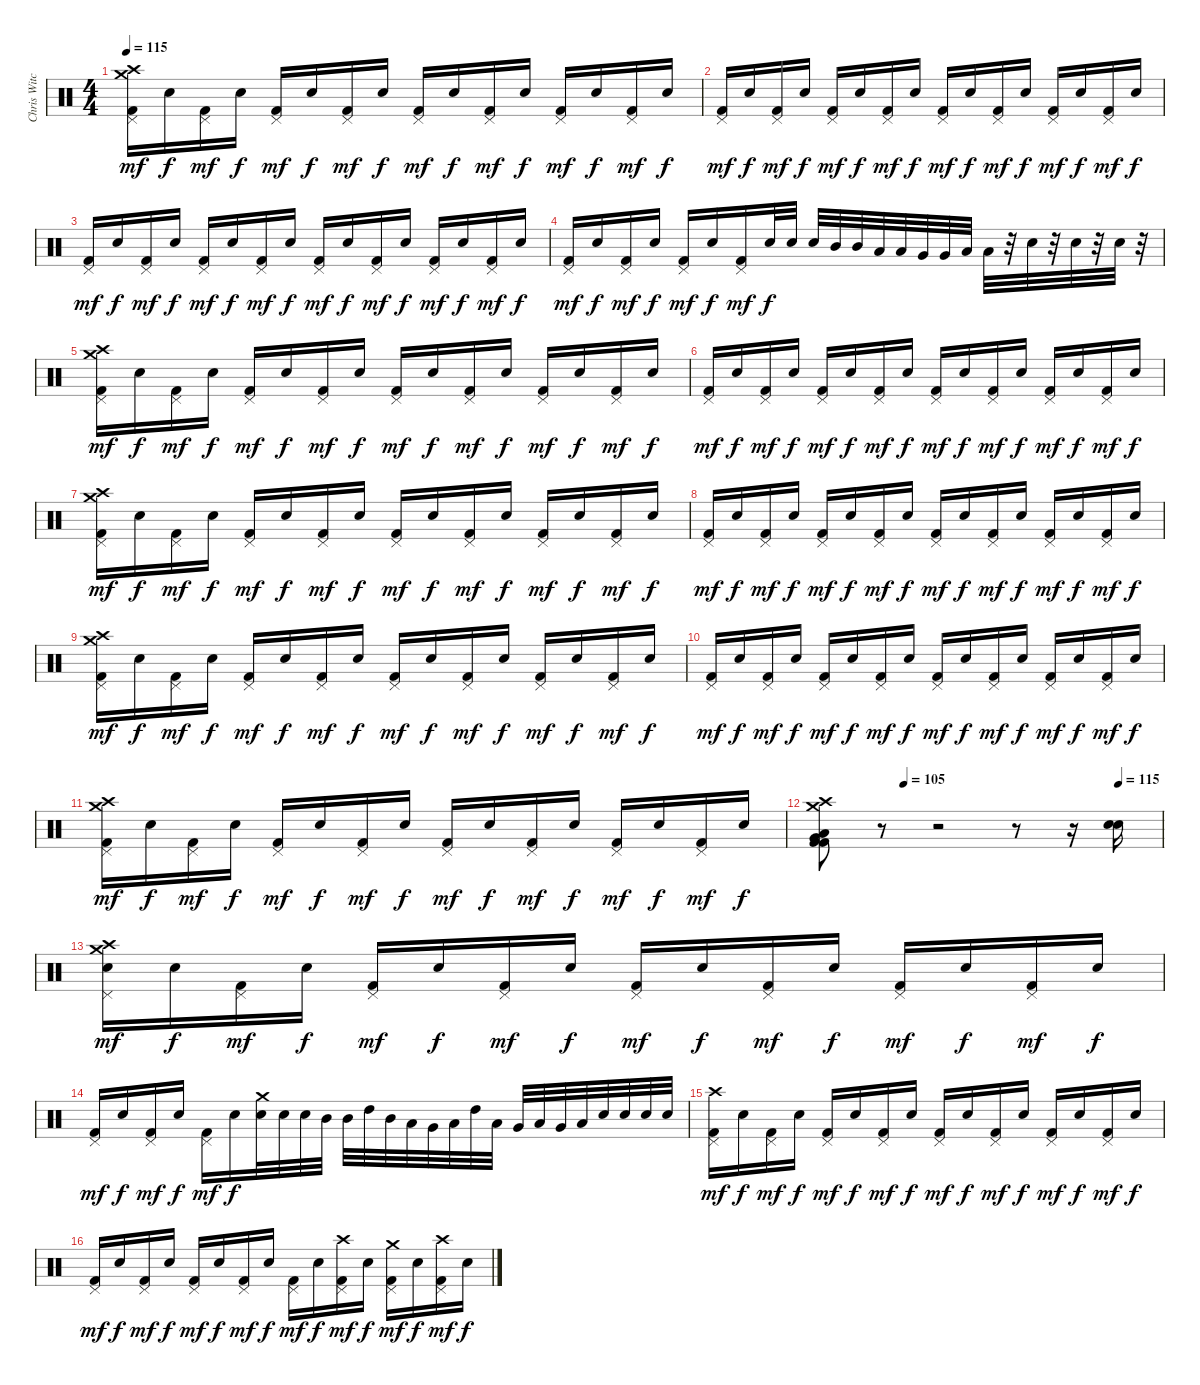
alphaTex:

\track ("Chris Witchhunter (Drums)" "Chris Witc") {instrument percussion}
\staff {score}
\articulation defaults
\ts (4 4)
\tempo 115
\clef neutral
\ks c
("Crash high (hit)" "Crash medium (hit)" "Pedal Hi-Hat (hit)" "Kick (hit) 2").16{dy mf} "Snare (hit) 2".16{dy f} ("Pedal Hi-Hat (hit)" "Kick (hit) 2").16{dy mf} "Snare (hit) 2".16{dy f} ("Pedal Hi-Hat (hit)" "Kick (hit) 2").16{dy mf} "Snare (hit) 2".16{dy f} ("Pedal Hi-Hat (hit)" "Kick (hit) 2").16{dy mf} "Snare (hit) 2".16{dy f} ("Pedal Hi-Hat (hit)" "Kick (hit) 2").16{dy mf} "Snare (hit) 2".16{dy f} ("Pedal Hi-Hat (hit)" "Kick (hit) 2").16{dy mf} "Snare (hit) 2".16{dy f} ("Pedal Hi-Hat (hit)" "Kick (hit) 2").16{dy mf} "Snare (hit) 2".16{dy f} ("Pedal Hi-Hat (hit)" "Kick (hit) 2").16{dy mf} "Snare (hit) 2".16{dy f} |
("Pedal Hi-Hat (hit)" "Kick (hit) 2").16{dy mf} "Snare (hit) 2".16{dy f} ("Pedal Hi-Hat (hit)" "Kick (hit) 2").16{dy mf} "Snare (hit) 2".16{dy f} ("Pedal Hi-Hat (hit)" "Kick (hit) 2").16{dy mf} "Snare (hit) 2".16{dy f} ("Pedal Hi-Hat (hit)" "Kick (hit) 2").16{dy mf} "Snare (hit) 2".16{dy f} ("Pedal Hi-Hat (hit)" "Kick (hit) 2").16{dy mf} "Snare (hit) 2".16{dy f} ("Pedal Hi-Hat (hit)" "Kick (hit) 2").16{dy mf} "Snare (hit) 2".16{dy f} ("Pedal Hi-Hat (hit)" "Kick (hit) 2").16{dy mf} "Snare (hit) 2".16{dy f} ("Pedal Hi-Hat (hit)" "Kick (hit) 2").16{dy mf} "Snare (hit) 2".16{dy f} |
("Pedal Hi-Hat (hit)" "Kick (hit) 2").16{dy mf} "Snare (hit) 2".16{dy f} ("Pedal Hi-Hat (hit)" "Kick (hit) 2").16{dy mf} "Snare (hit) 2".16{dy f} ("Pedal Hi-Hat (hit)" "Kick (hit) 2").16{dy mf} "Snare (hit) 2".16{dy f} ("Pedal Hi-Hat (hit)" "Kick (hit) 2").16{dy mf} "Snare (hit) 2".16{dy f} ("Pedal Hi-Hat (hit)" "Kick (hit) 2").16{dy mf} "Snare (hit) 2".16{dy f} ("Pedal Hi-Hat (hit)" "Kick (hit) 2").16{dy mf} "Snare (hit) 2".16{dy f} ("Pedal Hi-Hat (hit)" "Kick (hit) 2").16{dy mf} "Snare (hit) 2".16{dy f} ("Pedal Hi-Hat (hit)" "Kick (hit) 2").16{dy mf} "Snare (hit) 2".16{dy f} |
("Pedal Hi-Hat (hit)" "Kick (hit) 2").16{dy mf} "Snare (hit) 2".16{dy f} ("Pedal Hi-Hat (hit)" "Kick (hit) 2").16{dy mf} "Snare (hit) 2".16{dy f} ("Pedal Hi-Hat (hit)" "Kick (hit) 2").16{dy mf} "Snare (hit) 2".16{dy f} ("Pedal Hi-Hat (hit)" "Kick (hit) 2").16{dy mf} "Snare (hit) 2".32{dy f} "Snare (hit) 2".32 "Snare (hit) 2".32 "Mid Tom (hit)".32 "Mid Tom (hit)".32 "Low Tom (hit)".32 "Low Tom (hit)".32 "Very Low Tom (hit)".32 "Very Low Tom (hit)".32 "Low Floor Tom (hit)".32 "Low Floor Tom (hit)".32 r.32 "Snare (hit) 2".32 r.32 "Snare (hit) 2".32 r.32 "Snare (hit) 2".32 r.32 |
("Crash high (hit)" "Crash medium (hit)" "Pedal Hi-Hat (hit)" "Kick (hit) 2").16{dy mf} "Snare (hit) 2".16{dy f} ("Pedal Hi-Hat (hit)" "Kick (hit) 2").16{dy mf} "Snare (hit) 2".16{dy f} ("Pedal Hi-Hat (hit)" "Kick (hit) 2").16{dy mf} "Snare (hit) 2".16{dy f} ("Pedal Hi-Hat (hit)" "Kick (hit) 2").16{dy mf} "Snare (hit) 2".16{dy f} ("Pedal Hi-Hat (hit)" "Kick (hit) 2").16{dy mf} "Snare (hit) 2".16{dy f} ("Pedal Hi-Hat (hit)" "Kick (hit) 2").16{dy mf} "Snare (hit) 2".16{dy f} ("Pedal Hi-Hat (hit)" "Kick (hit) 2").16{dy mf} "Snare (hit) 2".16{dy f} ("Pedal Hi-Hat (hit)" "Kick (hit) 2").16{dy mf} "Snare (hit) 2".16{dy f} |
("Pedal Hi-Hat (hit)" "Kick (hit) 2").16{dy mf} "Snare (hit) 2".16{dy f} ("Pedal Hi-Hat (hit)" "Kick (hit) 2").16{dy mf} "Snare (hit) 2".16{dy f} ("Pedal Hi-Hat (hit)" "Kick (hit) 2").16{dy mf} "Snare (hit) 2".16{dy f} ("Pedal Hi-Hat (hit)" "Kick (hit) 2").16{dy mf} "Snare (hit) 2".16{dy f} ("Pedal Hi-Hat (hit)" "Kick (hit) 2").16{dy mf} "Snare (hit) 2".16{dy f} ("Pedal Hi-Hat (hit)" "Kick (hit) 2").16{dy mf} "Snare (hit) 2".16{dy f} ("Pedal Hi-Hat (hit)" "Kick (hit) 2").16{dy mf} "Snare (hit) 2".16{dy f} ("Pedal Hi-Hat (hit)" "Kick (hit) 2").16{dy mf} "Snare (hit) 2".16{dy f} |
("Crash high (hit)" "Crash medium (hit)" "Pedal Hi-Hat (hit)" "Kick (hit) 2").16{dy mf} "Snare (hit) 2".16{dy f} ("Pedal Hi-Hat (hit)" "Kick (hit) 2").16{dy mf} "Snare (hit) 2".16{dy f} ("Pedal Hi-Hat (hit)" "Kick (hit) 2").16{dy mf} "Snare (hit) 2".16{dy f} ("Pedal Hi-Hat (hit)" "Kick (hit) 2").16{dy mf} "Snare (hit) 2".16{dy f} ("Pedal Hi-Hat (hit)" "Kick (hit) 2").16{dy mf} "Snare (hit) 2".16{dy f} ("Pedal Hi-Hat (hit)" "Kick (hit) 2").16{dy mf} "Snare (hit) 2".16{dy f} ("Pedal Hi-Hat (hit)" "Kick (hit) 2").16{dy mf} "Snare (hit) 2".16{dy f} ("Pedal Hi-Hat (hit)" "Kick (hit) 2").16{dy mf} "Snare (hit) 2".16{dy f} |
("Pedal Hi-Hat (hit)" "Kick (hit) 2").16{dy mf} "Snare (hit) 2".16{dy f} ("Pedal Hi-Hat (hit)" "Kick (hit) 2").16{dy mf} "Snare (hit) 2".16{dy f} ("Pedal Hi-Hat (hit)" "Kick (hit) 2").16{dy mf} "Snare (hit) 2".16{dy f} ("Pedal Hi-Hat (hit)" "Kick (hit) 2").16{dy mf} "Snare (hit) 2".16{dy f} ("Pedal Hi-Hat (hit)" "Kick (hit) 2").16{dy mf} "Snare (hit) 2".16{dy f} ("Pedal Hi-Hat (hit)" "Kick (hit) 2").16{dy mf} "Snare (hit) 2".16{dy f} ("Pedal Hi-Hat (hit)" "Kick (hit) 2").16{dy mf} "Snare (hit) 2".16{dy f} ("Pedal Hi-Hat (hit)" "Kick (hit) 2").16{dy mf} "Snare (hit) 2".16{dy f} |
("Crash high (hit)" "Crash medium (hit)" "Pedal Hi-Hat (hit)" "Kick (hit) 2").16{dy mf} "Snare (hit) 2".16{dy f} ("Pedal Hi-Hat (hit)" "Kick (hit) 2").16{dy mf} "Snare (hit) 2".16{dy f} ("Pedal Hi-Hat (hit)" "Kick (hit) 2").16{dy mf} "Snare (hit) 2".16{dy f} ("Pedal Hi-Hat (hit)" "Kick (hit) 2").16{dy mf} "Snare (hit) 2".16{dy f} ("Pedal Hi-Hat (hit)" "Kick (hit) 2").16{dy mf} "Snare (hit) 2".16{dy f} ("Pedal Hi-Hat (hit)" "Kick (hit) 2").16{dy mf} "Snare (hit) 2".16{dy f} ("Pedal Hi-Hat (hit)" "Kick (hit) 2").16{dy mf} "Snare (hit) 2".16{dy f} ("Pedal Hi-Hat (hit)" "Kick (hit) 2").16{dy mf} "Snare (hit) 2".16{dy f} |
("Pedal Hi-Hat (hit)" "Kick (hit) 2").16{dy mf} "Snare (hit) 2".16{dy f} ("Pedal Hi-Hat (hit)" "Kick (hit) 2").16{dy mf} "Snare (hit) 2".16{dy f} ("Pedal Hi-Hat (hit)" "Kick (hit) 2").16{dy mf} "Snare (hit) 2".16{dy f} ("Pedal Hi-Hat (hit)" "Kick (hit) 2").16{dy mf} "Snare (hit) 2".16{dy f} ("Pedal Hi-Hat (hit)" "Kick (hit) 2").16{dy mf} "Snare (hit) 2".16{dy f} ("Pedal Hi-Hat (hit)" "Kick (hit) 2").16{dy mf} "Snare (hit) 2".16{dy f} ("Pedal Hi-Hat (hit)" "Kick (hit) 2").16{dy mf} "Snare (hit) 2".16{dy f} ("Pedal Hi-Hat (hit)" "Kick (hit) 2").16{dy mf} "Snare (hit) 2".16{dy f} |
("Crash high (hit)" "Crash medium (hit)" "Pedal Hi-Hat (hit)" "Kick (hit) 2").16{dy mf} "Snare (hit) 2".16{dy f} ("Pedal Hi-Hat (hit)" "Kick (hit) 2").16{dy mf} "Snare (hit) 2".16{dy f} ("Pedal Hi-Hat (hit)" "Kick (hit) 2").16{dy mf} "Snare (hit) 2".16{dy f} ("Pedal Hi-Hat (hit)" "Kick (hit) 2").16{dy mf} "Snare (hit) 2".16{dy f} ("Pedal Hi-Hat (hit)" "Kick (hit) 2").16{dy mf} "Snare (hit) 2".16{dy f} ("Pedal Hi-Hat (hit)" "Kick (hit) 2").16{dy mf} "Snare (hit) 2".16{dy f} ("Pedal Hi-Hat (hit)" "Kick (hit) 2").16{dy mf} "Snare (hit) 2".16{dy f} ("Pedal Hi-Hat (hit)" "Kick (hit) 2").16{dy mf} "Snare (hit) 2".16{dy f} |
\tempo (105 0.25)
\tempo (115 0.875)
("Crash medium (hit)" "Crash high (hit)" "Very Low Tom (hit)" "Low Floor Tom (hit)" "Kick (hit) 2" "Kick (hit) 2").8 r.8 r.2 r.8 r.16 ("Snare (hit) 2" "Snare (hit) 2").16 |
("Crash high (hit)" "Crash medium (hit)" "Pedal Hi-Hat (hit)" "Snare (hit) 2").16{dy mf} "Snare (hit) 2".16{dy f} ("Pedal Hi-Hat (hit)" "Kick (hit) 2").16{dy mf} "Snare (hit) 2".16{dy f} ("Pedal Hi-Hat (hit)" "Kick (hit) 2").16{dy mf} "Snare (hit) 2".16{dy f} ("Pedal Hi-Hat (hit)" "Kick (hit) 2").16{dy mf} "Snare (hit) 2".16{dy f} ("Pedal Hi-Hat (hit)" "Kick (hit) 2").16{dy mf} "Snare (hit) 2".16{dy f} ("Pedal Hi-Hat (hit)" "Kick (hit) 2").16{dy mf} "Snare (hit) 2".16{dy f} ("Pedal Hi-Hat (hit)" "Kick (hit) 2").16{dy mf} "Snare (hit) 2".16{dy f} ("Pedal Hi-Hat (hit)" "Kick (hit) 2").16{dy mf} "Snare (hit) 2".16{dy f} |
("Pedal Hi-Hat (hit)" "Kick (hit) 2").16{dy mf} "Snare (hit) 2".16{dy f} ("Pedal Hi-Hat (hit)" "Kick (hit) 2").16{dy mf} "Snare (hit) 2".16{dy f} ("Pedal Hi-Hat (hit)" "Kick (hit) 2").16{dy mf} "Snare (hit) 2".16{dy f} ("Crash medium (hit)" "Snare (hit) 2").32 "Snare (hit) 2".32 "Snare (hit) 2".32 "Mid Tom (hit)".32 "Mid Tom (hit)".32 "High Tom (hit)".32 "Mid Tom (hit)".32 "Low Tom (hit)".32 "Very Low Tom (hit)".32 "Low Floor Tom (hit)".32 "High Tom (hit)".32 "Low Tom (hit)".32 "Very Low Tom (hit)".32 "Low Floor Tom (hit)".32 "Very Low Tom (hit)".32 "Low Floor Tom (hit)".32 "Snare (hit) 2".32 "Snare (hit) 2".32 "Snare (hit) 2".32 "Snare (hit) 2".32 |
("Crash high (hit)" "Pedal Hi-Hat (hit)" "Kick (hit) 2").16{dy mf} "Snare (hit) 2".16{dy f} ("Pedal Hi-Hat (hit)" "Kick (hit) 2").16{dy mf} "Snare (hit) 2".16{dy f} ("Pedal Hi-Hat (hit)" "Kick (hit) 2").16{dy mf} "Snare (hit) 2".16{dy f} ("Pedal Hi-Hat (hit)" "Kick (hit) 2").16{dy mf} "Snare (hit) 2".16{dy f} ("Pedal Hi-Hat (hit)" "Kick (hit) 2").16{dy mf} "Snare (hit) 2".16{dy f} ("Pedal Hi-Hat (hit)" "Kick (hit) 2").16{dy mf} "Snare (hit) 2".16{dy f} ("Pedal Hi-Hat (hit)" "Kick (hit) 2").16{dy mf} "Snare (hit) 2".16{dy f} ("Pedal Hi-Hat (hit)" "Kick (hit) 2").16{dy mf} "Snare (hit) 2".16{dy f} |
("Pedal Hi-Hat (hit)" "Kick (hit) 2").16{dy mf} "Snare (hit) 2".16{dy f} ("Pedal Hi-Hat (hit)" "Kick (hit) 2").16{dy mf} "Snare (hit) 2".16{dy f} ("Pedal Hi-Hat (hit)" "Kick (hit) 2").16{dy mf} "Snare (hit) 2".16{dy f} ("Pedal Hi-Hat (hit)" "Kick (hit) 2").16{dy mf} "Snare (hit) 2".16{dy f} ("Pedal Hi-Hat (hit)" "Kick (hit) 2").16{dy mf} "Snare (hit) 2".16{dy f} ("Crash high (hit)" "Pedal Hi-Hat (hit)" "Kick (hit) 2").16{dy mf} "Snare (hit) 2".16{dy f} ("Crash medium (hit)" "Pedal Hi-Hat (hit)" "Kick (hit) 2").16{dy mf} "Snare (hit) 2".16{dy f} ("Crash high (hit)" "Pedal Hi-Hat (hit)" "Kick (hit) 2").16{dy mf} "Snare (hit) 2".16{dy f}
